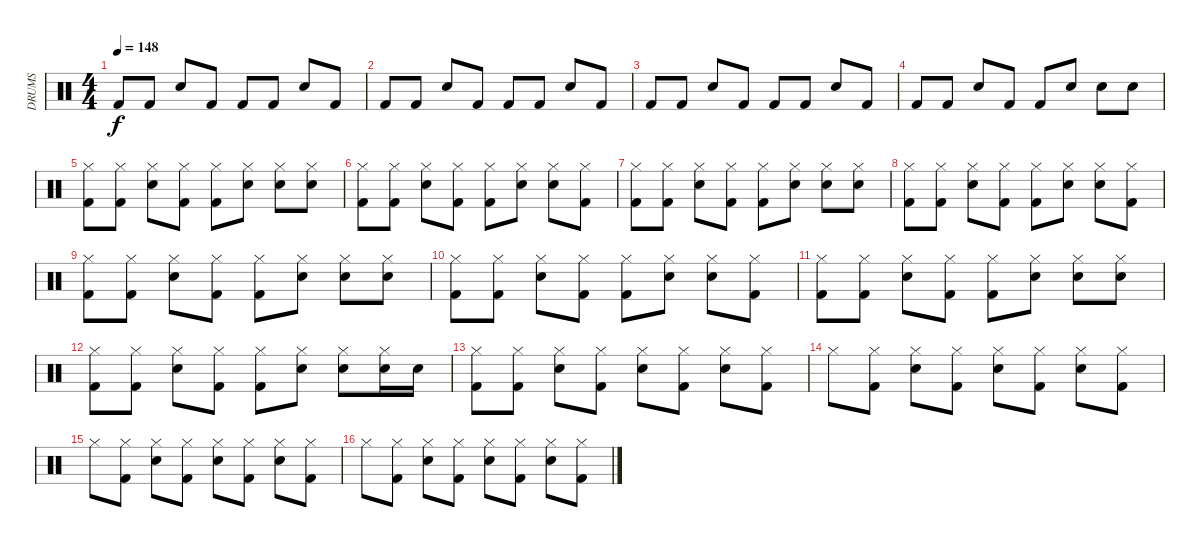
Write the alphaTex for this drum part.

\track ("DRUMS" "DRUMS") {instrument percussion}
\staff {score}
\articulation defaults
\ts (4 4)
\tempo 148
\clef neutral
\ks c "Kick (hit) 2".8{dy f} "Kick (hit) 2".8 "Snare (hit) 2".8 "Kick (hit) 2".8 "Kick (hit) 2".8 "Kick (hit) 2".8 "Snare (hit) 2".8 "Kick (hit) 2".8
|
"Kick (hit) 2".8 "Kick (hit) 2".8 "Snare (hit) 2".8 "Kick (hit) 2".8 "Kick (hit) 2".8 "Kick (hit) 2".8 "Snare (hit) 2".8 "Kick (hit) 2".8 |
"Kick (hit) 2".8 "Kick (hit) 2".8 "Snare (hit) 2".8 "Kick (hit) 2".8 "Kick (hit) 2".8 "Kick (hit) 2".8 "Snare (hit) 2".8 "Kick (hit) 2".8 |
"Kick (hit) 2".8 "Kick (hit) 2".8 "Snare (hit) 2".8 "Kick (hit) 2".8 "Kick (hit) 2".8 "Snare (hit) 2".8 "Snare (hit) 2".8 "Snare (hit) 2".8 |
("Hi-Hat (closed)" "Kick (hit) 2").8 ("Hi-Hat (closed)" "Kick (hit) 2").8 ("Hi-Hat (closed)" "Snare (hit) 2").8 ("Hi-Hat (closed)" "Kick (hit) 2").8 ("Hi-Hat (closed)" "Kick (hit) 2").8 ("Hi-Hat (closed)" "Snare (hit) 2").8 ("Hi-Hat (closed)" "Snare (hit) 2").8 ("Hi-Hat (closed)" "Snare (hit) 2").8 |
("Hi-Hat (closed)" "Kick (hit) 2").8 ("Hi-Hat (closed)" "Kick (hit) 2").8 ("Hi-Hat (closed)" "Snare (hit) 2").8 ("Hi-Hat (closed)" "Kick (hit) 2").8 ("Hi-Hat (closed)" "Kick (hit) 2").8 ("Hi-Hat (closed)" "Snare (hit) 2").8 ("Hi-Hat (closed)" "Snare (hit) 2").8 ("Hi-Hat (closed)" "Kick (hit) 2").8 |
("Hi-Hat (closed)" "Kick (hit) 2").8 ("Hi-Hat (closed)" "Kick (hit) 2").8 ("Hi-Hat (closed)" "Snare (hit) 2").8 ("Hi-Hat (closed)" "Kick (hit) 2").8 ("Hi-Hat (closed)" "Kick (hit) 2").8 ("Hi-Hat (closed)" "Snare (hit) 2").8 ("Hi-Hat (closed)" "Snare (hit) 2").8 ("Hi-Hat (closed)" "Snare (hit) 2").8 |
("Hi-Hat (closed)" "Kick (hit) 2").8 ("Hi-Hat (closed)" "Kick (hit) 2").8 ("Hi-Hat (closed)" "Snare (hit) 2").8 ("Hi-Hat (closed)" "Kick (hit) 2").8 ("Hi-Hat (closed)" "Kick (hit) 2").8 ("Hi-Hat (closed)" "Snare (hit) 2").8 ("Hi-Hat (closed)" "Snare (hit) 2").8 ("Hi-Hat (closed)" "Kick (hit) 2").8 |
("Hi-Hat (closed)" "Kick (hit) 2").8 ("Hi-Hat (closed)" "Kick (hit) 2").8 ("Hi-Hat (closed)" "Snare (hit) 2").8 ("Hi-Hat (closed)" "Kick (hit) 2").8 ("Hi-Hat (closed)" "Kick (hit) 2").8 ("Hi-Hat (closed)" "Snare (hit) 2").8 ("Hi-Hat (closed)" "Snare (hit) 2").8 ("Hi-Hat (closed)" "Snare (hit) 2").8 |
("Hi-Hat (closed)" "Kick (hit) 2").8 ("Hi-Hat (closed)" "Kick (hit) 2").8 ("Hi-Hat (closed)" "Snare (hit) 2").8 ("Hi-Hat (closed)" "Kick (hit) 2").8 ("Hi-Hat (closed)" "Kick (hit) 2").8 ("Hi-Hat (closed)" "Snare (hit) 2").8 ("Hi-Hat (closed)" "Snare (hit) 2").8 ("Hi-Hat (closed)" "Kick (hit) 2").8 |
("Hi-Hat (closed)" "Kick (hit) 2").8 ("Hi-Hat (closed)" "Kick (hit) 2").8 ("Hi-Hat (closed)" "Snare (hit) 2").8 ("Hi-Hat (closed)" "Kick (hit) 2").8 ("Hi-Hat (closed)" "Kick (hit) 2").8 ("Hi-Hat (closed)" "Snare (hit) 2").8 ("Hi-Hat (closed)" "Snare (hit) 2").8 ("Hi-Hat (closed)" "Snare (hit) 2").8 |
("Hi-Hat (closed)" "Kick (hit) 2").8 ("Hi-Hat (closed)" "Kick (hit) 2").8 ("Hi-Hat (closed)" "Snare (hit) 2").8 ("Hi-Hat (closed)" "Kick (hit) 2").8 ("Hi-Hat (closed)" "Kick (hit) 2").8 ("Hi-Hat (closed)" "Snare (hit) 2").8 ("Hi-Hat (closed)" "Snare (hit) 2").8 ("Hi-Hat (closed)" "Snare (hit) 2").16 "Snare (hit) 2".16 |
("Hi-Hat (closed)" "Kick (hit) 2").8 ("Hi-Hat (closed)" "Kick (hit) 2").8 ("Hi-Hat (closed)" "Snare (hit) 2").8 ("Hi-Hat (closed)" "Kick (hit) 2").8 ("Hi-Hat (closed)" "Snare (hit) 2").8 ("Hi-Hat (closed)" "Kick (hit) 2").8 ("Hi-Hat (closed)" "Snare (hit) 2").8 ("Hi-Hat (closed)" "Kick (hit) 2").8 |
"Hi-Hat (closed)".8 ("Hi-Hat (closed)" "Kick (hit) 2").8 ("Hi-Hat (closed)" "Snare (hit) 2").8 ("Hi-Hat (closed)" "Kick (hit) 2").8 ("Hi-Hat (closed)" "Snare (hit) 2").8 ("Hi-Hat (closed)" "Kick (hit) 2").8 ("Hi-Hat (closed)" "Snare (hit) 2").8 ("Hi-Hat (closed)" "Kick (hit) 2").8 |
"Hi-Hat (closed)".8 ("Hi-Hat (closed)" "Kick (hit) 2").8 ("Hi-Hat (closed)" "Snare (hit) 2").8 ("Hi-Hat (closed)" "Kick (hit) 2").8 ("Hi-Hat (closed)" "Snare (hit) 2").8 ("Hi-Hat (closed)" "Kick (hit) 2").8 ("Hi-Hat (closed)" "Snare (hit) 2").8 ("Hi-Hat (closed)" "Kick (hit) 2").8 |
"Hi-Hat (closed)".8 ("Hi-Hat (closed)" "Kick (hit) 2").8 ("Hi-Hat (closed)" "Snare (hit) 2").8 ("Hi-Hat (closed)" "Kick (hit) 2").8 ("Hi-Hat (closed)" "Snare (hit) 2").8 ("Hi-Hat (closed)" "Kick (hit) 2").8 ("Hi-Hat (closed)" "Snare (hit) 2").8 ("Hi-Hat (closed)" "Kick (hit) 2").8
